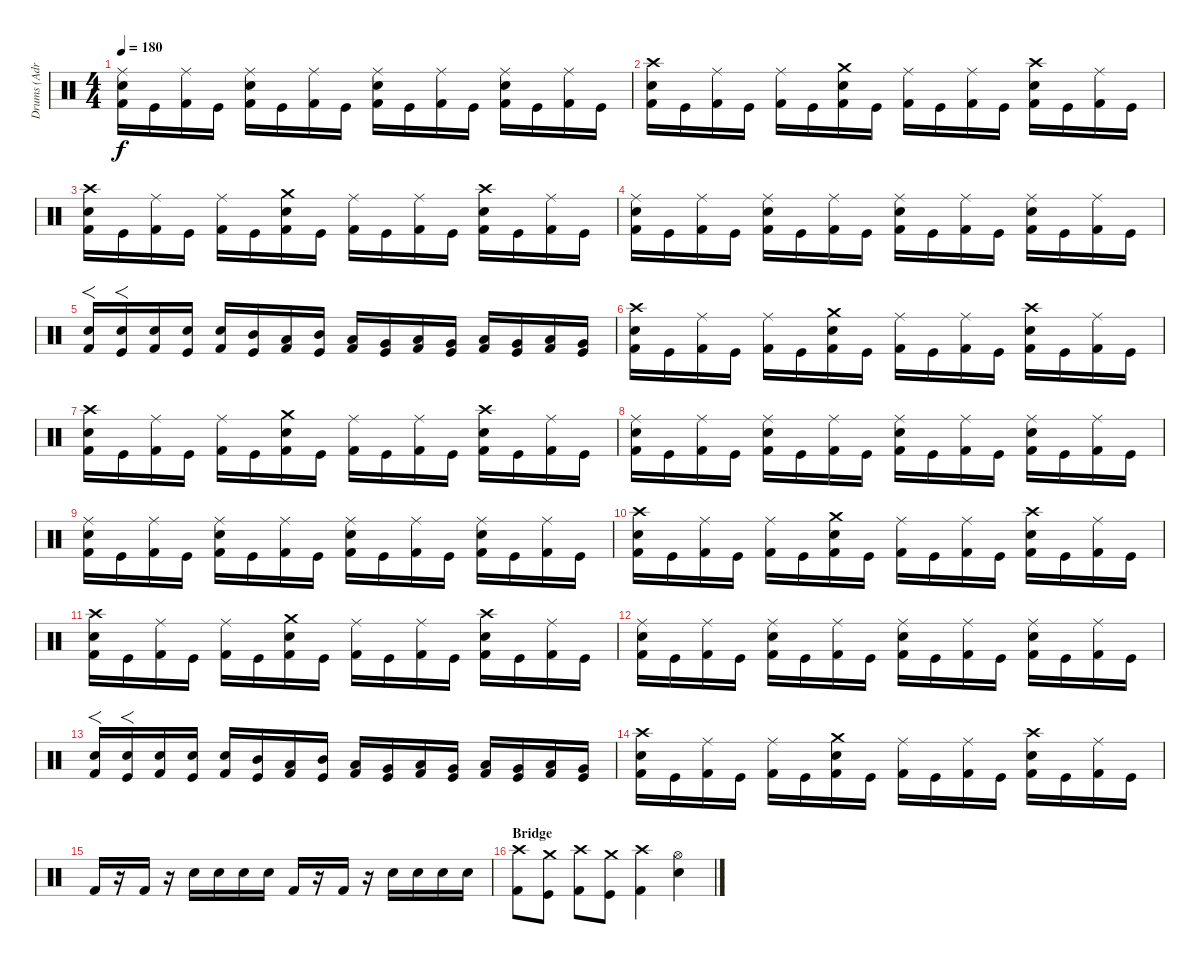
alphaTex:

\track ("Drums (Adrian)" "Drums (Adr") {instrument percussion}
\staff {score}
\articulation defaults
\ts (4 4)
\tempo 180
\clef neutral
\ks c
("Ride (middle)" "Electric Snare (hit)" "Kick (hit) 2").16{dy f} "Kick (hit)".16 ("Ride (middle)" "Kick (hit) 2").16 "Kick (hit)".16 ("Ride (middle)" "Electric Snare (hit)" "Kick (hit) 2").16 "Kick (hit)".16 ("Ride (middle)" "Kick (hit) 2").16 "Kick (hit)".16 ("Ride (middle)" "Electric Snare (hit)" "Kick (hit) 2").16 "Kick (hit)".16 ("Ride (middle)" "Kick (hit) 2").16 "Kick (hit)".16 ("Ride (middle)" "Electric Snare (hit)" "Kick (hit) 2").16 "Kick (hit)".16 ("Ride (middle)" "Kick (hit) 2").16 "Kick (hit)".16 |
("Crash high (hit)" "Electric Snare (hit)" "Kick (hit) 2").16 "Kick (hit)".16 ("Ride (middle)" "Kick (hit) 2").16 "Kick (hit)".16 ("Ride (middle)" "Kick (hit) 2").16 "Kick (hit)".16 ("Crash medium (hit)" "Electric Snare (hit)" "Kick (hit) 2").16 "Kick (hit)".16 ("Ride (middle)" "Kick (hit) 2").16 "Kick (hit)".16 ("Ride (middle)" "Kick (hit) 2").16 "Kick (hit)".16 ("Crash high (hit)" "Electric Snare (hit)" "Kick (hit) 2").16 "Kick (hit)".16 ("Ride (middle)" "Kick (hit) 2").16 "Kick (hit)".16 |
("Crash high (hit)" "Electric Snare (hit)" "Kick (hit) 2").16 "Kick (hit)".16 ("Ride (middle)" "Kick (hit) 2").16 "Kick (hit)".16 ("Ride (middle)" "Kick (hit) 2").16 "Kick (hit)".16 ("Crash medium (hit)" "Electric Snare (hit)" "Kick (hit) 2").16 "Kick (hit)".16 ("Ride (middle)" "Kick (hit) 2").16 "Kick (hit)".16 ("Ride (middle)" "Kick (hit) 2").16 "Kick (hit)".16 ("Crash high (hit)" "Electric Snare (hit)" "Kick (hit) 2").16 "Kick (hit)".16 ("Ride (middle)" "Kick (hit) 2").16 "Kick (hit)".16 |
("Ride (middle)" "Electric Snare (hit)" "Kick (hit) 2").16 "Kick (hit)".16 ("Ride (middle)" "Kick (hit) 2").16 "Kick (hit)".16 ("Ride (middle)" "Electric Snare (hit)" "Kick (hit) 2").16 "Kick (hit)".16 ("Ride (middle)" "Kick (hit) 2").16 "Kick (hit)".16 ("Ride (middle)" "Electric Snare (hit)" "Kick (hit) 2").16 "Kick (hit)".16 ("Ride (middle)" "Kick (hit) 2").16 "Kick (hit)".16 ("Ride (middle)" "Electric Snare (hit)" "Kick (hit) 2").16 "Kick (hit)".16 ("Ride (middle)" "Kick (hit) 2").16 "Kick (hit)".16 |
("Electric Snare (hit)" "Kick (hit) 2").16{f} ("Electric Snare (hit)" "Kick (hit)").16{f} ("Electric Snare (hit)" "Kick (hit) 2").16 ("Electric Snare (hit)" "Kick (hit)").16 ("Electric Snare (hit)" "Kick (hit) 2").16 ("Mid Tom (hit)" "Kick (hit)").16 ("Low Tom (hit)" "Kick (hit) 2").16 ("Mid Tom (hit)" "Kick (hit)").16 ("Low Tom (hit)" "Kick (hit) 2").16 ("Very Low Tom (hit)" "Kick (hit)").16 ("Low Tom (hit)" "Kick (hit) 2").16 ("Very Low Tom (hit)" "Kick (hit)").16 ("Low Floor Tom (hit)" "Kick (hit) 2").16 ("Very Low Tom (hit)" "Kick (hit)").16 ("Low Floor Tom (hit)" "Kick (hit) 2").16 ("Very Low Tom (hit)" "Kick (hit)").16 |
("Crash high (hit)" "Electric Snare (hit)" "Kick (hit) 2").16 "Kick (hit)".16 ("Ride (middle)" "Kick (hit) 2").16 "Kick (hit)".16 ("Ride (middle)" "Kick (hit) 2").16 "Kick (hit)".16 ("Crash medium (hit)" "Electric Snare (hit)" "Kick (hit) 2").16 "Kick (hit)".16 ("Ride (middle)" "Kick (hit) 2").16 "Kick (hit)".16 ("Ride (middle)" "Kick (hit) 2").16 "Kick (hit)".16 ("Crash high (hit)" "Electric Snare (hit)" "Kick (hit) 2").16 "Kick (hit)".16 ("Ride (middle)" "Kick (hit) 2").16 "Kick (hit)".16 |
("Crash high (hit)" "Electric Snare (hit)" "Kick (hit) 2").16 "Kick (hit)".16 ("Ride (middle)" "Kick (hit) 2").16 "Kick (hit)".16 ("Ride (middle)" "Kick (hit) 2").16 "Kick (hit)".16 ("Crash medium (hit)" "Electric Snare (hit)" "Kick (hit) 2").16 "Kick (hit)".16 ("Ride (middle)" "Kick (hit) 2").16 "Kick (hit)".16 ("Ride (middle)" "Kick (hit) 2").16 "Kick (hit)".16 ("Crash high (hit)" "Electric Snare (hit)" "Kick (hit) 2").16 "Kick (hit)".16 ("Ride (middle)" "Kick (hit) 2").16 "Kick (hit)".16 |
("Ride (middle)" "Electric Snare (hit)" "Kick (hit) 2").16 "Kick (hit)".16 ("Ride (middle)" "Kick (hit) 2").16 "Kick (hit)".16 ("Ride (middle)" "Electric Snare (hit)" "Kick (hit) 2").16 "Kick (hit)".16 ("Ride (middle)" "Kick (hit) 2").16 "Kick (hit)".16 ("Ride (middle)" "Electric Snare (hit)" "Kick (hit) 2").16 "Kick (hit)".16 ("Ride (middle)" "Kick (hit) 2").16 "Kick (hit)".16 ("Ride (middle)" "Electric Snare (hit)" "Kick (hit) 2").16 "Kick (hit)".16 ("Ride (middle)" "Kick (hit) 2").16 "Kick (hit)".16 |
("Ride (middle)" "Electric Snare (hit)" "Kick (hit) 2").16 "Kick (hit)".16 ("Ride (middle)" "Kick (hit) 2").16 "Kick (hit)".16 ("Ride (middle)" "Electric Snare (hit)" "Kick (hit) 2").16 "Kick (hit)".16 ("Ride (middle)" "Kick (hit) 2").16 "Kick (hit)".16 ("Ride (middle)" "Electric Snare (hit)" "Kick (hit) 2").16 "Kick (hit)".16 ("Ride (middle)" "Kick (hit) 2").16 "Kick (hit)".16 ("Ride (middle)" "Electric Snare (hit)" "Kick (hit) 2").16 "Kick (hit)".16 ("Ride (middle)" "Kick (hit) 2").16 "Kick (hit)".16 |
("Crash high (hit)" "Electric Snare (hit)" "Kick (hit) 2").16 "Kick (hit)".16 ("Ride (middle)" "Kick (hit) 2").16 "Kick (hit)".16 ("Ride (middle)" "Kick (hit) 2").16 "Kick (hit)".16 ("Crash medium (hit)" "Electric Snare (hit)" "Kick (hit) 2").16 "Kick (hit)".16 ("Ride (middle)" "Kick (hit) 2").16 "Kick (hit)".16 ("Ride (middle)" "Kick (hit) 2").16 "Kick (hit)".16 ("Crash high (hit)" "Electric Snare (hit)" "Kick (hit) 2").16 "Kick (hit)".16 ("Ride (middle)" "Kick (hit) 2").16 "Kick (hit)".16 |
("Crash high (hit)" "Electric Snare (hit)" "Kick (hit) 2").16 "Kick (hit)".16 ("Ride (middle)" "Kick (hit) 2").16 "Kick (hit)".16 ("Ride (middle)" "Kick (hit) 2").16 "Kick (hit)".16 ("Crash medium (hit)" "Electric Snare (hit)" "Kick (hit) 2").16 "Kick (hit)".16 ("Ride (middle)" "Kick (hit) 2").16 "Kick (hit)".16 ("Ride (middle)" "Kick (hit) 2").16 "Kick (hit)".16 ("Crash high (hit)" "Electric Snare (hit)" "Kick (hit) 2").16 "Kick (hit)".16 ("Ride (middle)" "Kick (hit) 2").16 "Kick (hit)".16 |
("Ride (middle)" "Electric Snare (hit)" "Kick (hit) 2").16 "Kick (hit)".16 ("Ride (middle)" "Kick (hit) 2").16 "Kick (hit)".16 ("Ride (middle)" "Electric Snare (hit)" "Kick (hit) 2").16 "Kick (hit)".16 ("Ride (middle)" "Kick (hit) 2").16 "Kick (hit)".16 ("Ride (middle)" "Electric Snare (hit)" "Kick (hit) 2").16 "Kick (hit)".16 ("Ride (middle)" "Kick (hit) 2").16 "Kick (hit)".16 ("Ride (middle)" "Electric Snare (hit)" "Kick (hit) 2").16 "Kick (hit)".16 ("Ride (middle)" "Kick (hit) 2").16 "Kick (hit)".16 |
("Electric Snare (hit)" "Kick (hit) 2").16{f} ("Electric Snare (hit)" "Kick (hit)").16{f} ("Electric Snare (hit)" "Kick (hit) 2").16 ("Electric Snare (hit)" "Kick (hit)").16 ("Electric Snare (hit)" "Kick (hit) 2").16 ("Mid Tom (hit)" "Kick (hit)").16 ("Low Tom (hit)" "Kick (hit) 2").16 ("Mid Tom (hit)" "Kick (hit)").16 ("Low Tom (hit)" "Kick (hit) 2").16 ("Very Low Tom (hit)" "Kick (hit)").16 ("Low Tom (hit)" "Kick (hit) 2").16 ("Very Low Tom (hit)" "Kick (hit)").16 ("Low Floor Tom (hit)" "Kick (hit) 2").16 ("Very Low Tom (hit)" "Kick (hit)").16 ("Low Floor Tom (hit)" "Kick (hit) 2").16 ("Very Low Tom (hit)" "Kick (hit)").16 |
("Crash high (hit)" "Electric Snare (hit)" "Kick (hit) 2").16 "Kick (hit)".16 ("Ride (middle)" "Kick (hit) 2").16 "Kick (hit)".16 ("Ride (middle)" "Kick (hit) 2").16 "Kick (hit)".16 ("Crash medium (hit)" "Electric Snare (hit)" "Kick (hit) 2").16 "Kick (hit)".16 ("Ride (middle)" "Kick (hit) 2").16 "Kick (hit)".16 ("Ride (middle)" "Kick (hit) 2").16 "Kick (hit)".16 ("Crash high (hit)" "Electric Snare (hit)" "Kick (hit) 2").16 "Kick (hit)".16 ("Ride (middle)" "Kick (hit) 2").16 "Kick (hit)".16 |
"Kick (hit) 2".16 r.16 "Kick (hit) 2".16 r.16 "Electric Snare (hit)".16 "Electric Snare (hit)".16 "Electric Snare (hit)".16 "Electric Snare (hit)".16 "Kick (hit) 2".16 r.16 "Kick (hit) 2".16 r.16 "Electric Snare (hit)".16 "Electric Snare (hit)".16 "Electric Snare (hit)".16 "Electric Snare (hit)".16 |
\section ("" "Bridge")
("Crash high (hit)" "Kick (hit) 2").8 ("Crash medium (hit)" "Kick (hit)").8 ("Crash high (hit)" "Kick (hit) 2").8 ("Crash medium (hit)" "Kick (hit)").8 ("Crash high (hit)" "Kick (hit) 2").4 ("Hi-Hat (open)" "Electric Snare (hit)").4
